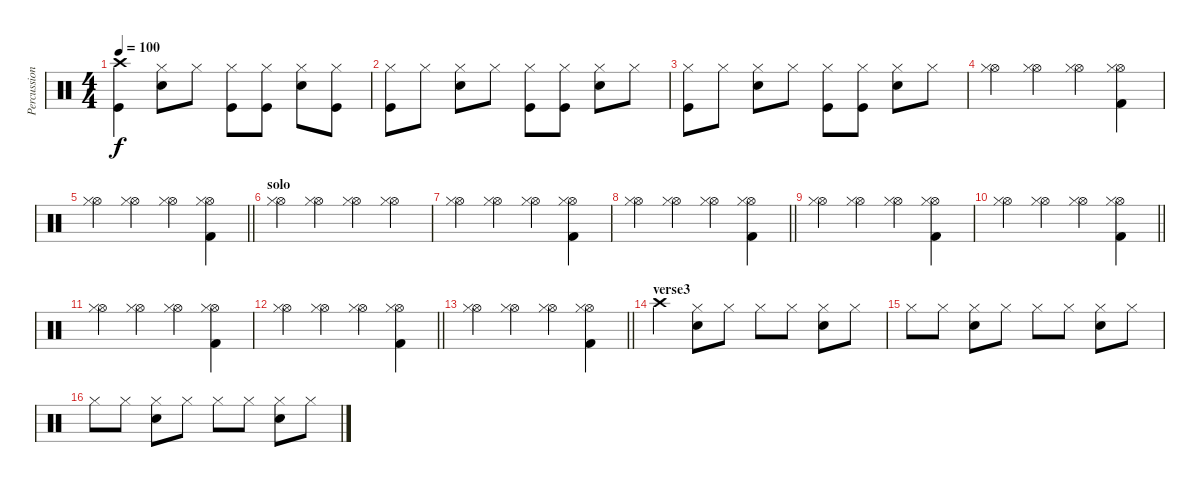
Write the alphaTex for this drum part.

\track ("Percussioni" "Percussion") {instrument percussion}
\staff {score}
\articulation defaults
\ts (4 4)
\tempo 100
\clef neutral
\ks c
("Crash high (hit)" "Kick (hit)").4{dy f} ("Hi-Hat (closed)" "Snare (hit) 2").8 "Hi-Hat (closed)".8 ("Hi-Hat (closed)" "Kick (hit)").8 ("Hi-Hat (closed)" "Kick (hit)").8 ("Hi-Hat (closed)" "Snare (hit) 2").8 ("Hi-Hat (closed)" "Kick (hit)").8 |
("Hi-Hat (closed)" "Kick (hit)").8 "Hi-Hat (closed)".8 ("Hi-Hat (closed)" "Snare (hit) 2").8 "Hi-Hat (closed)".8 ("Hi-Hat (closed)" "Kick (hit)").8 ("Hi-Hat (closed)" "Kick (hit)").8 ("Hi-Hat (closed)" "Snare (hit) 2").8 "Hi-Hat (closed)".8 |
("Hi-Hat (closed)" "Kick (hit)").8 "Hi-Hat (closed)".8 ("Hi-Hat (closed)" "Snare (hit) 2").8 "Hi-Hat (closed)".8 ("Hi-Hat (closed)" "Kick (hit)").8 ("Hi-Hat (closed)" "Kick (hit)").8 ("Hi-Hat (closed)" "Snare (hit) 2").8 "Hi-Hat (closed)".8 |
("Hi-Hat (open)" "Hi-Hat (closed)").4 ("Hi-Hat (open)" "Hi-Hat (closed)").4 ("Hi-Hat (open)" "Hi-Hat (closed)").4 ("Hi-Hat (open)" "Hi-Hat (closed)" "Kick (hit) 2").4 |
\barLineRight lightlight
("Hi-Hat (open)" "Hi-Hat (closed)").4 ("Hi-Hat (open)" "Hi-Hat (closed)").4 ("Hi-Hat (open)" "Hi-Hat (closed)").4 ("Hi-Hat (open)" "Hi-Hat (closed)" "Kick (hit) 2").4 |
\section ("" "solo")
("Hi-Hat (open)" "Hi-Hat (closed)").4 ("Hi-Hat (open)" "Hi-Hat (closed)").4 ("Hi-Hat (open)" "Hi-Hat (closed)").4 ("Hi-Hat (open)" "Hi-Hat (closed)").4 |
("Hi-Hat (open)" "Hi-Hat (closed)").4 ("Hi-Hat (open)" "Hi-Hat (closed)").4 ("Hi-Hat (open)" "Hi-Hat (closed)").4 ("Hi-Hat (open)" "Hi-Hat (closed)" "Kick (hit) 2").4 |
\barLineRight lightlight
("Hi-Hat (open)" "Hi-Hat (closed)").4 ("Hi-Hat (open)" "Hi-Hat (closed)").4 ("Hi-Hat (open)" "Hi-Hat (closed)").4 ("Hi-Hat (open)" "Hi-Hat (closed)" "Kick (hit) 2").4 |
("Hi-Hat (open)" "Hi-Hat (closed)").4 ("Hi-Hat (open)" "Hi-Hat (closed)").4 ("Hi-Hat (open)" "Hi-Hat (closed)").4 ("Hi-Hat (open)" "Hi-Hat (closed)" "Kick (hit) 2").4 |
\barLineRight lightlight
("Hi-Hat (open)" "Hi-Hat (closed)").4 ("Hi-Hat (open)" "Hi-Hat (closed)").4 ("Hi-Hat (open)" "Hi-Hat (closed)").4 ("Hi-Hat (open)" "Hi-Hat (closed)" "Kick (hit) 2").4 |
("Hi-Hat (open)" "Hi-Hat (closed)").4 ("Hi-Hat (open)" "Hi-Hat (closed)").4 ("Hi-Hat (open)" "Hi-Hat (closed)").4 ("Hi-Hat (open)" "Hi-Hat (closed)" "Kick (hit) 2").4 |
\barLineRight lightlight
("Hi-Hat (open)" "Hi-Hat (closed)").4 ("Hi-Hat (open)" "Hi-Hat (closed)").4 ("Hi-Hat (open)" "Hi-Hat (closed)").4 ("Hi-Hat (open)" "Hi-Hat (closed)" "Kick (hit) 2").4 |
\barLineRight lightlight
("Hi-Hat (open)" "Hi-Hat (closed)").4 ("Hi-Hat (open)" "Hi-Hat (closed)").4 ("Hi-Hat (open)" "Hi-Hat (closed)").4 ("Hi-Hat (open)" "Hi-Hat (closed)" "Kick (hit) 2").4 |
\section ("" "verse3")
"Crash high (hit)".4 ("Hi-Hat (closed)" "Snare (hit) 2").8 "Hi-Hat (closed)".8 "Hi-Hat (closed)".8 "Hi-Hat (closed)".8 ("Hi-Hat (closed)" "Snare (hit) 2").8 "Hi-Hat (closed)".8 |
"Hi-Hat (closed)".8 "Hi-Hat (closed)".8 ("Hi-Hat (closed)" "Snare (hit) 2").8 "Hi-Hat (closed)".8 "Hi-Hat (closed)".8 "Hi-Hat (closed)".8 ("Hi-Hat (closed)" "Snare (hit) 2").8 "Hi-Hat (closed)".8 |
"Hi-Hat (closed)".8 "Hi-Hat (closed)".8 ("Hi-Hat (closed)" "Snare (hit) 2").8 "Hi-Hat (closed)".8 "Hi-Hat (closed)".8 "Hi-Hat (closed)".8 ("Hi-Hat (closed)" "Snare (hit) 2").8 "Hi-Hat (closed)".8
